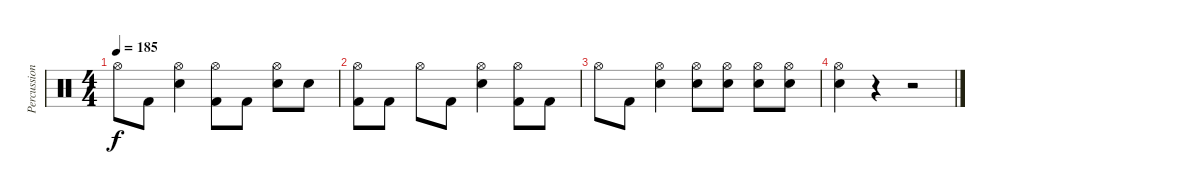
\track ("Percussions" "Percussion") {instrument percussion}
\staff {score}
\articulation defaults
\ts (4 4)
\tempo 185
\clef neutral
\ks c "Hi-Hat (open)".8{dy f} "Kick (hit) 2".8
("Electric Snare (hit)" "Hi-Hat (open)").4 ("Kick (hit) 2" "Hi-Hat (open)").8 "Kick (hit) 2".8 ("Electric Snare (hit)" "Hi-Hat (open)").8 "Electric Snare (hit)".8 |
("Kick (hit) 2" "Hi-Hat (open)").8 "Kick (hit) 2".8 "Hi-Hat (open)".8 "Kick (hit) 2".8 ("Electric Snare (hit)" "Hi-Hat (open)").4 ("Kick (hit) 2" "Hi-Hat (open)").8 "Kick (hit) 2".8 |
"Hi-Hat (open)".8 "Kick (hit) 2".8 ("Electric Snare (hit)" "Hi-Hat (open)").4 ("Electric Snare (hit)" "Hi-Hat (open)").8 ("Electric Snare (hit)" "Hi-Hat (open)").8 ("Electric Snare (hit)" "Hi-Hat (open)").8 ("Electric Snare (hit)" "Hi-Hat (open)").8 |
("Electric Snare (hit)" "Hi-Hat (open)").4 r.4 r.2
